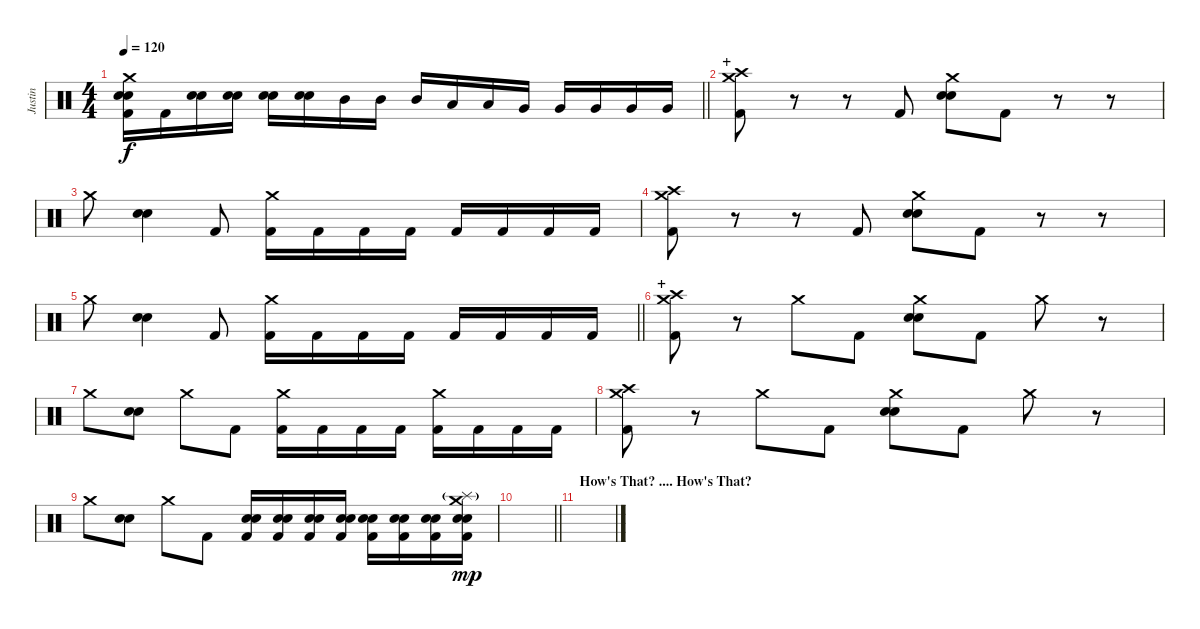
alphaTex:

\track ("Justin" "Justin") {instrument percussion}
\staff {score}
\articulation defaults
\ts (4 4)
\tempo 120
\clef neutral
\barLineRight lightlight
\ks c
("Crash medium (hit)" "Electric Snare (hit)" "Snare (hit) 2" "Kick (hit) 2").16{dy f} "Kick (hit) 2".16 ("Electric Snare (hit)" "Snare (hit) 2").16 ("Electric Snare (hit)" "Snare (hit) 2").16 ("Electric Snare (hit)" "Snare (hit) 2").16 ("Electric Snare (hit)" "Snare (hit) 2").16 "Mid Tom (hit)".16 "Mid Tom (hit)".16 "Mid Tom (hit)".16 "Low Tom (hit)".16 "Low Tom (hit)".16 "Very Low Tom (hit)".16 "Very Low Tom (hit)".16 "Very Low Tom (hit)".16 "Very Low Tom (hit)".16 "Very Low Tom (hit)".16 |
\section ("" "+")
("Crash medium (hit)" "Crash high (hit)" "Kick (hit) 2").8 r.8 r.8 "Kick (hit) 2".8 ("Crash medium (hit)" "Electric Snare (hit)" "Snare (hit) 2").8 "Kick (hit) 2".8 r.8 r.8 |
"Crash medium (hit)".8 ("Electric Snare (hit)" "Snare (hit) 2").4 "Kick (hit) 2".8 ("Crash medium (hit)" "Kick (hit) 2").16 "Kick (hit) 2".16 "Kick (hit) 2".16 "Kick (hit) 2".16 "Kick (hit) 2".16 "Kick (hit) 2".16 "Kick (hit) 2".16 "Kick (hit) 2".16 |
("Crash medium (hit)" "Crash high (hit)" "Kick (hit) 2").8 r.8 r.8 "Kick (hit) 2".8 ("Crash medium (hit)" "Electric Snare (hit)" "Snare (hit) 2").8 "Kick (hit) 2".8 r.8 r.8 |
\barLineRight lightlight "Crash medium (hit)".8
("Electric Snare (hit)" "Snare (hit) 2").4 "Kick (hit) 2".8 ("Crash medium (hit)" "Kick (hit) 2").16 "Kick (hit) 2".16 "Kick (hit) 2".16 "Kick (hit) 2".16 "Kick (hit) 2".16 "Kick (hit) 2".16 "Kick (hit) 2".16 "Kick (hit) 2".16 |
\section ("" "+")
("Crash medium (hit)" "Crash high (hit)" "Kick (hit) 2").8 r.8 "Crash medium (hit)".8 "Kick (hit) 2".8 ("Crash medium (hit)" "Electric Snare (hit)" "Snare (hit) 2").8 "Kick (hit) 2".8 "Crash medium (hit)".8 r.8 |
"Crash medium (hit)".8 ("Electric Snare (hit)" "Snare (hit) 2").8 "Crash medium (hit)".8 "Kick (hit) 2".8 ("Crash medium (hit)" "Kick (hit) 2").16 "Kick (hit) 2".16 "Kick (hit) 2".16 "Kick (hit) 2".16 ("Crash medium (hit)" "Kick (hit) 2").16 "Kick (hit) 2".16 "Kick (hit) 2".16 "Kick (hit) 2".16 |
("Crash medium (hit)" "Crash high (hit)" "Kick (hit) 2").8 r.8 "Crash medium (hit)".8 "Kick (hit) 2".8 ("Crash medium (hit)" "Electric Snare (hit)" "Snare (hit) 2").8 "Kick (hit) 2".8 "Crash medium (hit)".8 r.8 |
"Crash medium (hit)".8 ("Electric Snare (hit)" "Snare (hit) 2").8 "Crash medium (hit)".8 "Kick (hit) 2".8 ("Electric Snare (hit)" "Snare (hit) 2" "Kick (hit) 2").16 ("Electric Snare (hit)" "Snare (hit) 2" "Kick (hit) 2").16 ("Electric Snare (hit)" "Snare (hit) 2" "Kick (hit) 2").16 ("Electric Snare (hit)" "Snare (hit) 2" "Kick (hit) 2").16 ("Electric Snare (hit)" "Snare (hit) 2" "Kick (hit) 2").16 ("Electric Snare (hit)" "Snare (hit) 2" "Kick (hit) 2").16 ("Electric Snare (hit)" "Snare (hit) 2" "Kick (hit) 2").16 ("Crash medium (hit)" "Splash (hit)"{g} "Electric Snare (hit)" "Snare (hit) 2" "Kick (hit) 2").16{dy mp} |
\barLineRight lightlight
|
\section ("" "How's That? .... How's That?")
